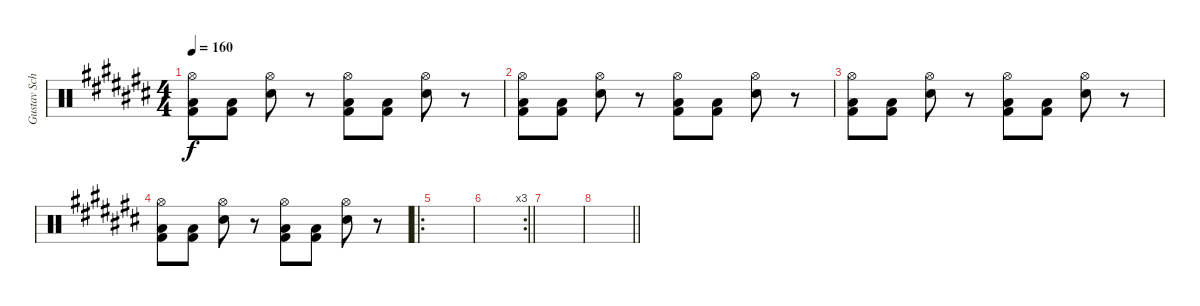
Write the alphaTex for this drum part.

\track ("Gustav Schäfer" "Gustav Sch") {instrument percussion}
\staff {score}
\articulation defaults
\ts (4 4)
\tempo 160
\clef neutral
\ks c#
("Low Floor Tom (hit)" "Kick (hit) 2" "Hi-Hat (open)").8{dy f} ("Low Floor Tom (hit)" "Kick (hit) 2").8 ("Electric Snare (hit)" "Hi-Hat (open)").8 r.8 ("Low Floor Tom (hit)" "Kick (hit) 2" "Hi-Hat (open)").8 ("Low Floor Tom (hit)" "Kick (hit) 2").8 ("Electric Snare (hit)" "Hi-Hat (open)").8 r.8 |
("Low Floor Tom (hit)" "Kick (hit) 2" "Hi-Hat (open)").8 ("Low Floor Tom (hit)" "Kick (hit) 2").8 ("Electric Snare (hit)" "Hi-Hat (open)").8 r.8 ("Low Floor Tom (hit)" "Kick (hit) 2" "Hi-Hat (open)").8 ("Low Floor Tom (hit)" "Kick (hit) 2").8 ("Electric Snare (hit)" "Hi-Hat (open)").8 r.8 |
("Low Floor Tom (hit)" "Kick (hit) 2" "Hi-Hat (open)").8 ("Low Floor Tom (hit)" "Kick (hit) 2").8 ("Electric Snare (hit)" "Hi-Hat (open)").8 r.8 ("Low Floor Tom (hit)" "Kick (hit) 2" "Hi-Hat (open)").8 ("Low Floor Tom (hit)" "Kick (hit) 2").8 ("Electric Snare (hit)" "Hi-Hat (open)").8 r.8 |
("Low Floor Tom (hit)" "Kick (hit) 2" "Hi-Hat (open)").8 ("Low Floor Tom (hit)" "Kick (hit) 2").8 ("Electric Snare (hit)" "Hi-Hat (open)").8 r.8 ("Low Floor Tom (hit)" "Kick (hit) 2" "Hi-Hat (open)").8 ("Low Floor Tom (hit)" "Kick (hit) 2").8 ("Electric Snare (hit)" "Hi-Hat (open)").8 r.8 |
\ro
|
\rc 3
\barLineRight lightlight
|
|
\barLineRight lightlight
